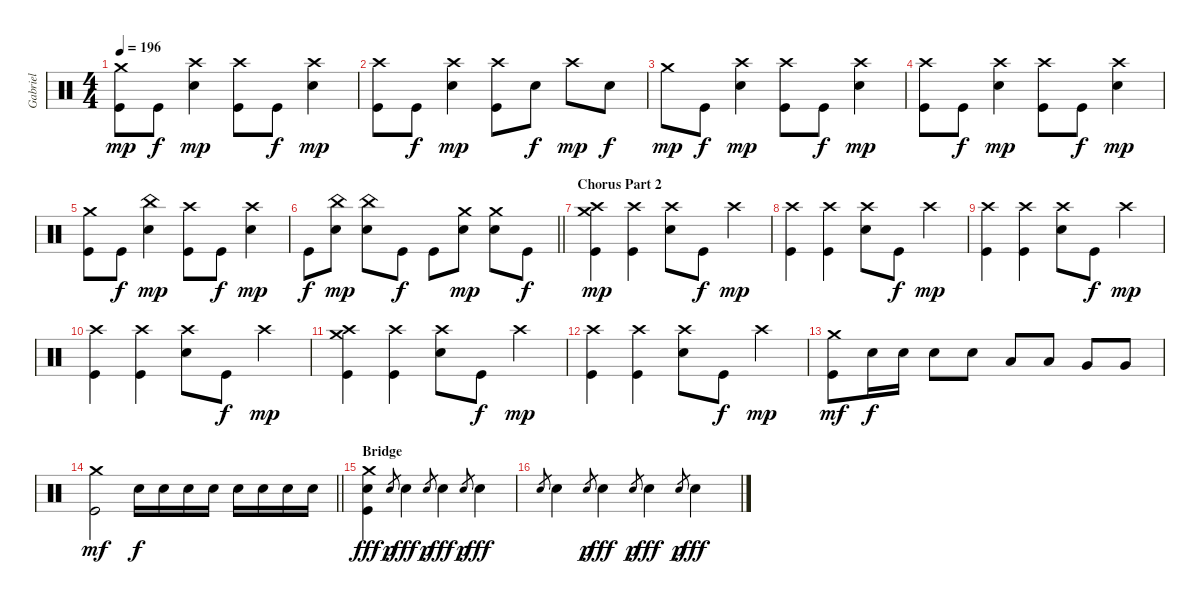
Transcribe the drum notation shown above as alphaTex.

\track ("Gabriel" "Gabriel") {instrument percussion}
\staff {score}
\articulation defaults
\ts (4 4)
\tempo 196
\clef neutral
\ks aminor
("Crash medium (hit)" "Kick (hit)").8{dy mp} "Kick (hit)".8{dy f} ("Crash high (hit)" "Snare (hit) 2").4{dy mp} ("Crash high (hit)" "Kick (hit)").8 "Kick (hit)".8{dy f} ("Crash high (hit)" "Snare (hit) 2").4{dy mp} |
("Crash high (hit)" "Kick (hit)").8 "Kick (hit)".8{dy f} ("Crash high (hit)" "Snare (hit) 2").4{dy mp} ("Crash high (hit)" "Kick (hit)").8 "Snare (hit) 2".8{dy f} "Crash high (hit)".8{dy mp} "Snare (hit) 2".8{dy f} |
"Crash medium (hit)".8{dy mp} "Kick (hit)".8{dy f} ("Crash high (hit)" "Snare (hit) 2").4{dy mp} ("Crash high (hit)" "Kick (hit)").8 "Kick (hit)".8{dy f} ("Crash high (hit)" "Snare (hit) 2").4{dy mp} |
("Crash high (hit)" "Kick (hit)").8 "Kick (hit)".8{dy f} ("Crash high (hit)" "Snare (hit) 2").4{dy mp} ("Crash high (hit)" "Kick (hit)").8 "Kick (hit)".8{dy f} ("Crash high (hit)" "Snare (hit) 2").4{dy mp} |
("Crash medium (hit)" "Kick (hit)").8 "Kick (hit)".8{dy f} ("China (hit)" "Snare (hit) 2").4{dy mp} ("Crash high (hit)" "Kick (hit)").8 "Kick (hit)".8{dy f} ("Crash high (hit)" "Snare (hit) 2").4{dy mp} |
\barLineRight lightlight "Kick (hit)".8{dy f}
("China (hit)" "Snare (hit) 2").8{dy mp} ("China (hit)" "Snare (hit) 2").8 "Kick (hit)".8{dy f} "Kick (hit)".8 ("Crash medium (hit)" "Snare (hit) 2").8{dy mp} ("Crash medium (hit)" "Snare (hit) 2").8 "Kick (hit)".8{dy f} |
\section ("" "Chorus Part 2")
("Crash high (hit)" "Crash medium (hit)" "Kick (hit)").4{dy mp} ("Crash high (hit)" "Kick (hit)").4 ("Crash high (hit)" "Snare (hit) 2").8 "Kick (hit)".8{dy f} "Crash high (hit)".4{dy mp} |
("Crash high (hit)" "Kick (hit)").4 ("Crash high (hit)" "Kick (hit)").4 ("Crash high (hit)" "Snare (hit) 2").8 "Kick (hit)".8{dy f} "Crash high (hit)".4{dy mp} |
("Crash high (hit)" "Kick (hit)").4 ("Crash high (hit)" "Kick (hit)").4 ("Crash high (hit)" "Snare (hit) 2").8 "Kick (hit)".8{dy f} "Crash high (hit)".4{dy mp} |
("Crash high (hit)" "Kick (hit)").4 ("Crash high (hit)" "Kick (hit)").4 ("Crash high (hit)" "Snare (hit) 2").8 "Kick (hit)".8{dy f} "Crash high (hit)".4{dy mp} |
("Crash high (hit)" "Crash medium (hit)" "Kick (hit)").4 ("Crash high (hit)" "Kick (hit)").4 ("Crash high (hit)" "Snare (hit) 2").8 "Kick (hit)".8{dy f} "Crash high (hit)".4{dy mp} |
("Crash high (hit)" "Kick (hit)").4 ("Crash high (hit)" "Kick (hit)").4 ("Crash high (hit)" "Snare (hit) 2").8 "Kick (hit)".8{dy f} "Crash high (hit)".4{dy mp} |
("Crash medium (hit)" "Kick (hit)").8{dy mf} "Snare (hit) 2".16{dy f} "Snare (hit) 2".16 "Snare (hit) 2".8 "Snare (hit) 2".8 "Low Tom (hit)".8 "Low Tom (hit)".8 "Very Low Tom (hit)".8 "Very Low Tom (hit)".8 |
\barLineRight lightlight
("Crash medium (hit)" "Kick (hit)").2{dy mf} "Snare (hit) 2".16{dy f} "Snare (hit) 2".16 "Snare (hit) 2".16 "Snare (hit) 2".16 "Snare (hit) 2".16 "Snare (hit) 2".16 "Snare (hit) 2".16 "Snare (hit) 2".16 |
\section ("" "Bridge")
("Crash medium (hit)" "Kick (hit)" "Hand Clap (hit)").4{dy fff} "Hand Clap (hit)".8{gr dy p} "Hand Clap (hit)".4{dy fff} "Hand Clap (hit)".8{gr dy p} "Hand Clap (hit)".4{dy fff} "Hand Clap (hit)".8{gr dy p} "Hand Clap (hit)".4{dy fff} |
"Hand Clap (hit)".8{gr} "Hand Clap (hit)".4 "Hand Clap (hit)".8{gr dy p} "Hand Clap (hit)".4{dy fff} "Hand Clap (hit)".8{gr dy p} "Hand Clap (hit)".4{dy fff} "Hand Clap (hit)".8{gr dy p} "Hand Clap (hit)".4{dy fff}
